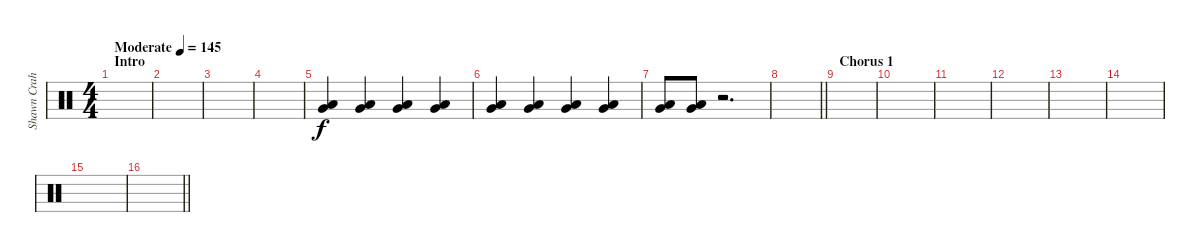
\track ("Shawn Crahan" "Shawn Crah") {instrument percussion}
\staff {score}
\articulation defaults
\ts (4 4)
\section ("" "Intro")
\tempo (145 "Moderate")
\clef neutral
\ks c
|
|
|
|
("Very Low Tom (hit)" "Low Floor Tom (hit)").4 ("Very Low Tom (hit)" "Low Floor Tom (hit)").4 ("Very Low Tom (hit)" "Low Floor Tom (hit)").4 ("Very Low Tom (hit)" "Low Floor Tom (hit)").4 |
("Very Low Tom (hit)" "Low Floor Tom (hit)").4 ("Very Low Tom (hit)" "Low Floor Tom (hit)").4 ("Very Low Tom (hit)" "Low Floor Tom (hit)").4 ("Very Low Tom (hit)" "Low Floor Tom (hit)").4 |
("Very Low Tom (hit)" "Low Floor Tom (hit)").8 ("Very Low Tom (hit)" "Low Floor Tom (hit)").8 r.2{d} |
\barLineRight lightlight
|
\section ("" "Chorus 1")
|
|
|
|
|
|
|
\barLineRight lightlight
